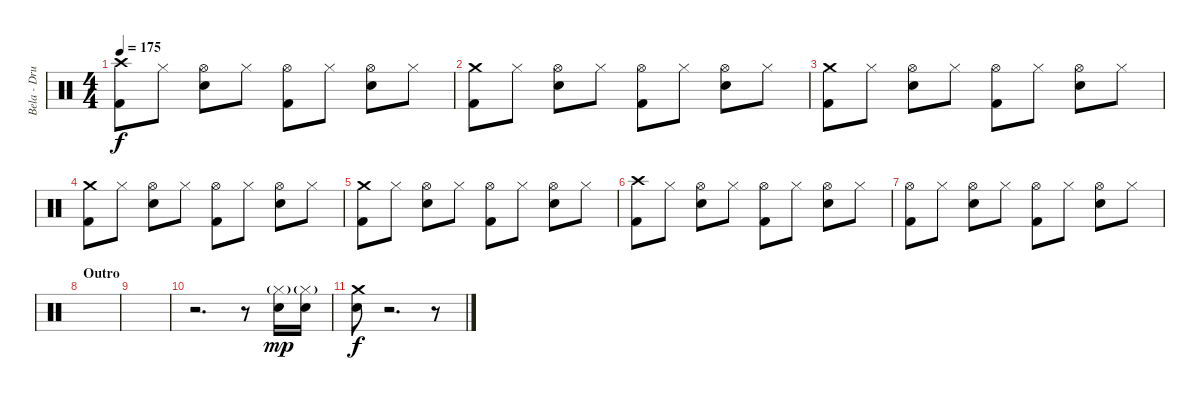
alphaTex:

\track ("Bela - Drums" "Bela - Dru") {instrument percussion}
\staff {score}
\articulation defaults
\ts (4 4)
\tempo 175
\clef neutral
\ks c
("Crash high (hit)" "Kick (hit) 2").8{dy f} "Hi-Hat (closed)".8 ("Hi-Hat (open)" "Electric Snare (hit)").8 "Hi-Hat (closed)".8 ("Hi-Hat (open)" "Kick (hit) 2").8 "Hi-Hat (closed)".8 ("Hi-Hat (open)" "Electric Snare (hit)").8 "Hi-Hat (closed)".8 |
("Crash medium (hit)" "Kick (hit) 2").8 "Hi-Hat (closed)".8 ("Hi-Hat (open)" "Electric Snare (hit)").8 "Hi-Hat (closed)".8 ("Hi-Hat (open)" "Kick (hit) 2").8 "Hi-Hat (closed)".8 ("Hi-Hat (open)" "Electric Snare (hit)").8 "Hi-Hat (closed)".8 |
("Crash medium (hit)" "Kick (hit) 2").8 "Hi-Hat (closed)".8 ("Hi-Hat (open)" "Electric Snare (hit)").8 "Hi-Hat (closed)".8 ("Hi-Hat (open)" "Kick (hit) 2").8 "Hi-Hat (closed)".8 ("Hi-Hat (open)" "Electric Snare (hit)").8 "Hi-Hat (closed)".8 |
("Crash medium (hit)" "Kick (hit) 2").8 "Hi-Hat (closed)".8 ("Hi-Hat (open)" "Electric Snare (hit)").8 "Hi-Hat (closed)".8 ("Hi-Hat (open)" "Kick (hit) 2").8 "Hi-Hat (closed)".8 ("Hi-Hat (open)" "Electric Snare (hit)").8 "Hi-Hat (closed)".8 |
("Crash medium (hit)" "Kick (hit) 2").8 "Hi-Hat (closed)".8 ("Hi-Hat (open)" "Electric Snare (hit)").8 "Hi-Hat (closed)".8 ("Hi-Hat (open)" "Kick (hit) 2").8 "Hi-Hat (closed)".8 ("Hi-Hat (open)" "Electric Snare (hit)").8 "Hi-Hat (closed)".8 |
("Crash high (hit)" "Kick (hit) 2").8 "Hi-Hat (closed)".8 ("Hi-Hat (open)" "Electric Snare (hit)").8 "Hi-Hat (closed)".8 ("Hi-Hat (open)" "Kick (hit) 2").8 "Hi-Hat (closed)".8 ("Hi-Hat (open)" "Electric Snare (hit)").8 "Hi-Hat (closed)".8 |
("Hi-Hat (open)" "Kick (hit) 2").8 "Hi-Hat (closed)".8 ("Hi-Hat (open)" "Electric Snare (hit)").8 "Hi-Hat (closed)".8 ("Hi-Hat (open)" "Kick (hit) 2").8 "Hi-Hat (closed)".8 ("Hi-Hat (open)" "Electric Snare (hit)").8 "Hi-Hat (closed)".8 |
\section ("" "Outro")
|
|
r.2{d} r.8 ("Hi-Hat (closed)"{g} "Electric Snare (hit)").16{dy mp} ("Hi-Hat (closed)"{g} "Electric Snare (hit)").16 |
("Crash medium (hit)" "Electric Snare (hit)").8{dy f} r.2{d} r.8
